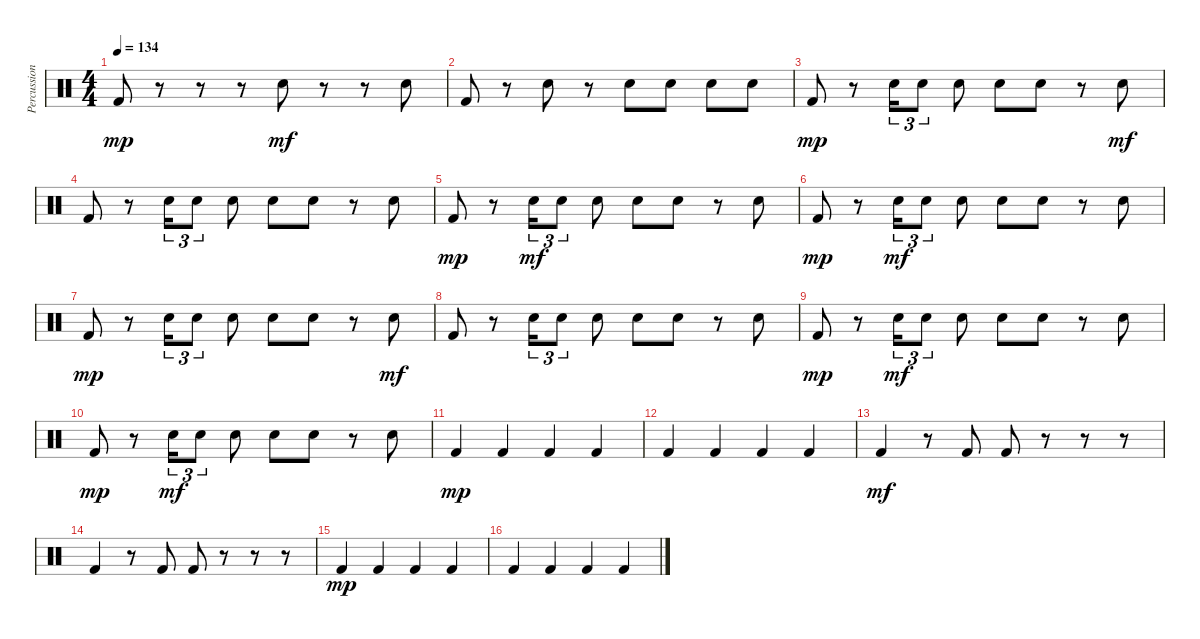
\track ("Percussion" "Percussion") {instrument percussion}
\staff {score}
\articulation defaults
\ts (4 4)
\tempo 134
\clef neutral
\ks c "Kick (hit) 2".8{dy mp}
r.8 r.8 r.8 "Snare (hit) 2".8{dy mf} r.8 r.8 "Snare (hit) 2".8 |
"Kick (hit) 2".8 r.8 "Snare (hit) 2".8 r.8 "Snare (hit) 2".8 "Snare (hit) 2".8 "Snare (hit) 2".8 "Snare (hit) 2".8 |
"Kick (hit) 2".8{dy mp} r.8 "Snare (hit) 2".16{tu (3 2)} "Snare (hit) 2".8{tu (3 2)} "Snare (hit) 2".8 "Snare (hit) 2".8 "Snare (hit) 2".8 r.8 "Snare (hit) 2".8{dy mf} |
"Kick (hit) 2".8 r.8 "Snare (hit) 2".16{tu (3 2)} "Snare (hit) 2".8{tu (3 2)} "Snare (hit) 2".8 "Snare (hit) 2".8 "Snare (hit) 2".8 r.8 "Snare (hit) 2".8 |
"Kick (hit) 2".8{dy mp} r.8 "Snare (hit) 2".16{tu (3 2) dy mf} "Snare (hit) 2".8{tu (3 2)} "Snare (hit) 2".8 "Snare (hit) 2".8 "Snare (hit) 2".8 r.8 "Snare (hit) 2".8 |
"Kick (hit) 2".8{dy mp} r.8 "Snare (hit) 2".16{tu (3 2) dy mf} "Snare (hit) 2".8{tu (3 2)} "Snare (hit) 2".8 "Snare (hit) 2".8 "Snare (hit) 2".8 r.8 "Snare (hit) 2".8 |
"Kick (hit) 2".8{dy mp} r.8 "Snare (hit) 2".16{tu (3 2)} "Snare (hit) 2".8{tu (3 2)} "Snare (hit) 2".8 "Snare (hit) 2".8 "Snare (hit) 2".8 r.8 "Snare (hit) 2".8{dy mf} |
"Kick (hit) 2".8 r.8 "Snare (hit) 2".16{tu (3 2)} "Snare (hit) 2".8{tu (3 2)} "Snare (hit) 2".8 "Snare (hit) 2".8 "Snare (hit) 2".8 r.8 "Snare (hit) 2".8 |
"Kick (hit) 2".8{dy mp} r.8 "Snare (hit) 2".16{tu (3 2) dy mf} "Snare (hit) 2".8{tu (3 2)} "Snare (hit) 2".8 "Snare (hit) 2".8 "Snare (hit) 2".8 r.8 "Snare (hit) 2".8 |
"Kick (hit) 2".8{dy mp} r.8 "Snare (hit) 2".16{tu (3 2) dy mf} "Snare (hit) 2".8{tu (3 2)} "Snare (hit) 2".8 "Snare (hit) 2".8 "Snare (hit) 2".8 r.8 "Snare (hit) 2".8 |
"Kick (hit) 2".4{dy mp} "Kick (hit) 2".4 "Kick (hit) 2".4 "Kick (hit) 2".4 |
"Kick (hit) 2".4 "Kick (hit) 2".4 "Kick (hit) 2".4 "Kick (hit) 2".4 |
"Kick (hit) 2".4{dy mf} r.8 "Kick (hit) 2".8 "Kick (hit) 2".8 r.8 r.8 r.8 |
"Kick (hit) 2".4 r.8 "Kick (hit) 2".8 "Kick (hit) 2".8 r.8 r.8 r.8 |
"Kick (hit) 2".4{dy mp} "Kick (hit) 2".4 "Kick (hit) 2".4 "Kick (hit) 2".4 |
"Kick (hit) 2".4 "Kick (hit) 2".4 "Kick (hit) 2".4 "Kick (hit) 2".4
